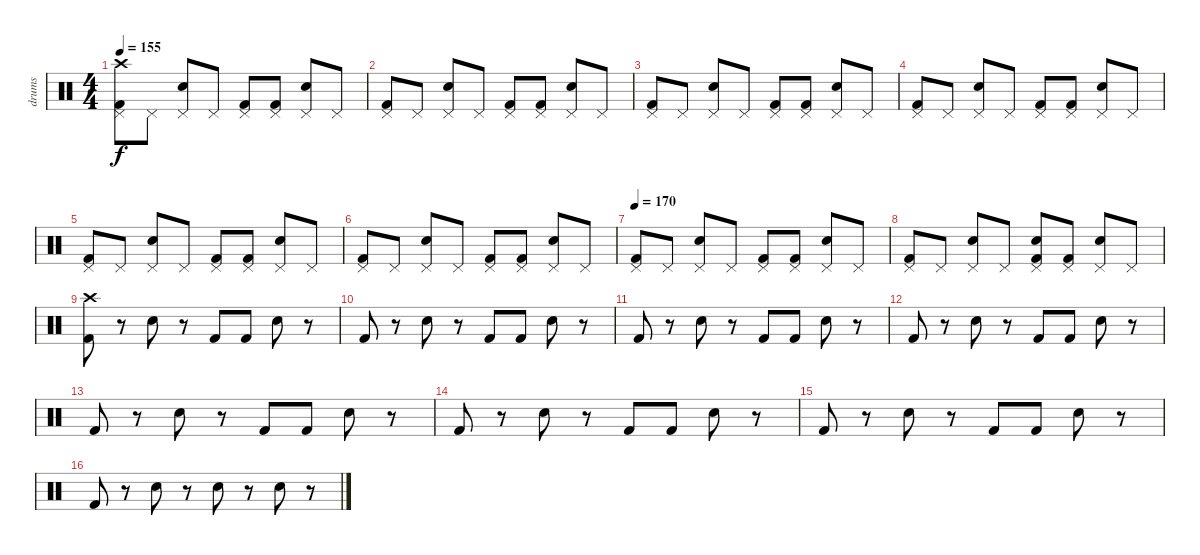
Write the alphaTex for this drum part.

\track ("drums" "drums") {instrument percussion}
\staff {score}
\articulation defaults
\ts (4 4)
\tempo 155
\clef neutral
\ks c
("Kick (hit) 2" "Pedal Hi-Hat (hit)" "Crash high (hit)").8{dy f} "Pedal Hi-Hat (hit)".8 ("Electric Snare (hit)" "Pedal Hi-Hat (hit)").8 "Pedal Hi-Hat (hit)".8 ("Kick (hit) 2" "Pedal Hi-Hat (hit)").8 ("Kick (hit) 2" "Pedal Hi-Hat (hit)").8 ("Electric Snare (hit)" "Pedal Hi-Hat (hit)").8 "Pedal Hi-Hat (hit)".8 |
("Kick (hit) 2" "Pedal Hi-Hat (hit)").8 "Pedal Hi-Hat (hit)".8 ("Electric Snare (hit)" "Pedal Hi-Hat (hit)").8 "Pedal Hi-Hat (hit)".8 ("Kick (hit) 2" "Pedal Hi-Hat (hit)").8 ("Kick (hit) 2" "Pedal Hi-Hat (hit)").8 ("Electric Snare (hit)" "Pedal Hi-Hat (hit)").8 "Pedal Hi-Hat (hit)".8 |
("Kick (hit) 2" "Pedal Hi-Hat (hit)").8 "Pedal Hi-Hat (hit)".8 ("Electric Snare (hit)" "Pedal Hi-Hat (hit)").8 "Pedal Hi-Hat (hit)".8 ("Kick (hit) 2" "Pedal Hi-Hat (hit)").8 ("Kick (hit) 2" "Pedal Hi-Hat (hit)").8 ("Electric Snare (hit)" "Pedal Hi-Hat (hit)").8 "Pedal Hi-Hat (hit)".8 |
("Kick (hit) 2" "Pedal Hi-Hat (hit)").8 "Pedal Hi-Hat (hit)".8 ("Electric Snare (hit)" "Pedal Hi-Hat (hit)").8 "Pedal Hi-Hat (hit)".8 ("Kick (hit) 2" "Pedal Hi-Hat (hit)").8 ("Kick (hit) 2" "Pedal Hi-Hat (hit)").8 ("Electric Snare (hit)" "Pedal Hi-Hat (hit)").8 "Pedal Hi-Hat (hit)".8 |
("Kick (hit) 2" "Pedal Hi-Hat (hit)").8 "Pedal Hi-Hat (hit)".8 ("Electric Snare (hit)" "Pedal Hi-Hat (hit)").8 "Pedal Hi-Hat (hit)".8 ("Kick (hit) 2" "Pedal Hi-Hat (hit)").8 ("Kick (hit) 2" "Pedal Hi-Hat (hit)").8 ("Electric Snare (hit)" "Pedal Hi-Hat (hit)").8 "Pedal Hi-Hat (hit)".8 |
("Kick (hit) 2" "Pedal Hi-Hat (hit)").8 "Pedal Hi-Hat (hit)".8 ("Electric Snare (hit)" "Pedal Hi-Hat (hit)").8 "Pedal Hi-Hat (hit)".8 ("Kick (hit) 2" "Pedal Hi-Hat (hit)").8 ("Kick (hit) 2" "Pedal Hi-Hat (hit)").8 ("Electric Snare (hit)" "Pedal Hi-Hat (hit)").8 "Pedal Hi-Hat (hit)".8 |
\tempo 170
("Kick (hit) 2" "Pedal Hi-Hat (hit)").8 "Pedal Hi-Hat (hit)".8 ("Electric Snare (hit)" "Pedal Hi-Hat (hit)").8 "Pedal Hi-Hat (hit)".8 ("Kick (hit) 2" "Pedal Hi-Hat (hit)").8 ("Kick (hit) 2" "Pedal Hi-Hat (hit)").8 ("Electric Snare (hit)" "Pedal Hi-Hat (hit)").8 "Pedal Hi-Hat (hit)".8 |
("Kick (hit) 2" "Pedal Hi-Hat (hit)").8 "Pedal Hi-Hat (hit)".8 ("Electric Snare (hit)" "Pedal Hi-Hat (hit)").8 "Pedal Hi-Hat (hit)".8 ("Kick (hit) 2" "Electric Snare (hit)" "Pedal Hi-Hat (hit)").8 ("Kick (hit) 2" "Pedal Hi-Hat (hit)").8 ("Electric Snare (hit)" "Pedal Hi-Hat (hit)").8 "Pedal Hi-Hat (hit)".8 |
("Kick (hit) 2" "Crash high (hit)").8 r.8 "Electric Snare (hit)".8 r.8 "Kick (hit) 2".8 "Kick (hit) 2".8 "Electric Snare (hit)".8 r.8 |
"Kick (hit) 2".8 r.8 "Electric Snare (hit)".8 r.8 "Kick (hit) 2".8 "Kick (hit) 2".8 "Electric Snare (hit)".8 r.8 |
"Kick (hit) 2".8 r.8 "Electric Snare (hit)".8 r.8 "Kick (hit) 2".8 "Kick (hit) 2".8 "Electric Snare (hit)".8 r.8 |
"Kick (hit) 2".8 r.8 "Electric Snare (hit)".8 r.8 "Kick (hit) 2".8 "Kick (hit) 2".8 "Electric Snare (hit)".8 r.8 |
"Kick (hit) 2".8 r.8 "Electric Snare (hit)".8 r.8 "Kick (hit) 2".8 "Kick (hit) 2".8 "Electric Snare (hit)".8 r.8 |
"Kick (hit) 2".8 r.8 "Electric Snare (hit)".8 r.8 "Kick (hit) 2".8 "Kick (hit) 2".8 "Electric Snare (hit)".8 r.8 |
"Kick (hit) 2".8 r.8 "Electric Snare (hit)".8 r.8 "Kick (hit) 2".8 "Kick (hit) 2".8 "Electric Snare (hit)".8 r.8 |
"Kick (hit) 2".8 r.8 "Electric Snare (hit)".8 r.8 "Electric Snare (hit)".8 r.8 "Electric Snare (hit)".8 r.8
